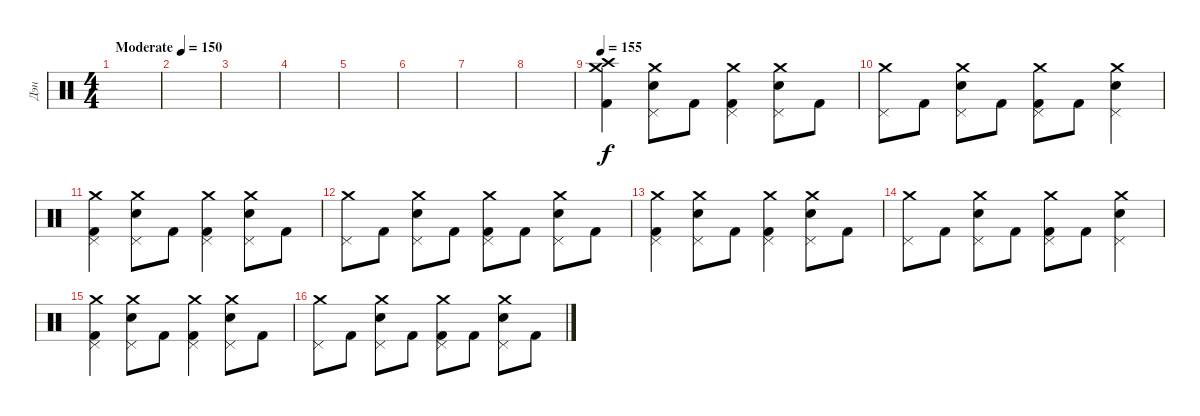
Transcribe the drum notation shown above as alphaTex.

\track ("Дэн" "Дэн") {instrument percussion}
\staff {score}
\articulation defaults
\ts (4 4)
\tempo (150 "Moderate")
\clef neutral
\ks c
|
|
|
|
|
|
|
|
\tempo 155
("Crash high (hit)" "Crash medium (hit)" "Kick (hit) 2").4 ("Crash medium (hit)" "Pedal Hi-Hat (hit)" "Snare (hit) 2").8 "Kick (hit) 2".8 ("Crash medium (hit)" "Pedal Hi-Hat (hit)" "Kick (hit) 2").4 ("Crash medium (hit)" "Pedal Hi-Hat (hit)" "Snare (hit) 2").8 "Kick (hit) 2".8 |
("Crash medium (hit)" "Pedal Hi-Hat (hit)").8 "Kick (hit) 2".8 ("Crash medium (hit)" "Pedal Hi-Hat (hit)" "Snare (hit) 2").8 "Kick (hit) 2".8 ("Crash medium (hit)" "Pedal Hi-Hat (hit)" "Kick (hit) 2").8 "Kick (hit) 2".8 ("Crash medium (hit)" "Pedal Hi-Hat (hit)" "Snare (hit) 2").4 |
("Crash medium (hit)" "Pedal Hi-Hat (hit)" "Kick (hit) 2").4 ("Crash medium (hit)" "Pedal Hi-Hat (hit)" "Snare (hit) 2").8 "Kick (hit) 2".8 ("Crash medium (hit)" "Pedal Hi-Hat (hit)" "Kick (hit) 2").4 ("Crash medium (hit)" "Pedal Hi-Hat (hit)" "Snare (hit) 2").8 "Kick (hit) 2".8 |
("Crash medium (hit)" "Pedal Hi-Hat (hit)").8 "Kick (hit) 2".8 ("Crash medium (hit)" "Pedal Hi-Hat (hit)" "Snare (hit) 2").8 "Kick (hit) 2".8 ("Crash medium (hit)" "Pedal Hi-Hat (hit)" "Kick (hit) 2").8 "Kick (hit) 2".8 ("Crash medium (hit)" "Pedal Hi-Hat (hit)" "Snare (hit) 2").8 "Kick (hit) 2".8 |
("Crash medium (hit)" "Pedal Hi-Hat (hit)" "Kick (hit) 2").4 ("Crash medium (hit)" "Pedal Hi-Hat (hit)" "Snare (hit) 2").8 "Kick (hit) 2".8 ("Crash medium (hit)" "Pedal Hi-Hat (hit)" "Kick (hit) 2").4 ("Crash medium (hit)" "Pedal Hi-Hat (hit)" "Snare (hit) 2").8 "Kick (hit) 2".8 |
("Crash medium (hit)" "Pedal Hi-Hat (hit)").8 "Kick (hit) 2".8 ("Crash medium (hit)" "Pedal Hi-Hat (hit)" "Snare (hit) 2").8 "Kick (hit) 2".8 ("Crash medium (hit)" "Pedal Hi-Hat (hit)" "Kick (hit) 2").8 "Kick (hit) 2".8 ("Crash medium (hit)" "Pedal Hi-Hat (hit)" "Snare (hit) 2").4 |
("Crash medium (hit)" "Pedal Hi-Hat (hit)" "Kick (hit) 2").4 ("Crash medium (hit)" "Pedal Hi-Hat (hit)" "Snare (hit) 2").8 "Kick (hit) 2".8 ("Crash medium (hit)" "Pedal Hi-Hat (hit)" "Kick (hit) 2").4 ("Crash medium (hit)" "Pedal Hi-Hat (hit)" "Snare (hit) 2").8 "Kick (hit) 2".8 |
("Crash medium (hit)" "Pedal Hi-Hat (hit)").8 "Kick (hit) 2".8 ("Crash medium (hit)" "Pedal Hi-Hat (hit)" "Snare (hit) 2").8 "Kick (hit) 2".8 ("Crash medium (hit)" "Pedal Hi-Hat (hit)" "Kick (hit) 2").8 "Kick (hit) 2".8 ("Crash medium (hit)" "Pedal Hi-Hat (hit)" "Snare (hit) 2").8 "Kick (hit) 2".8
